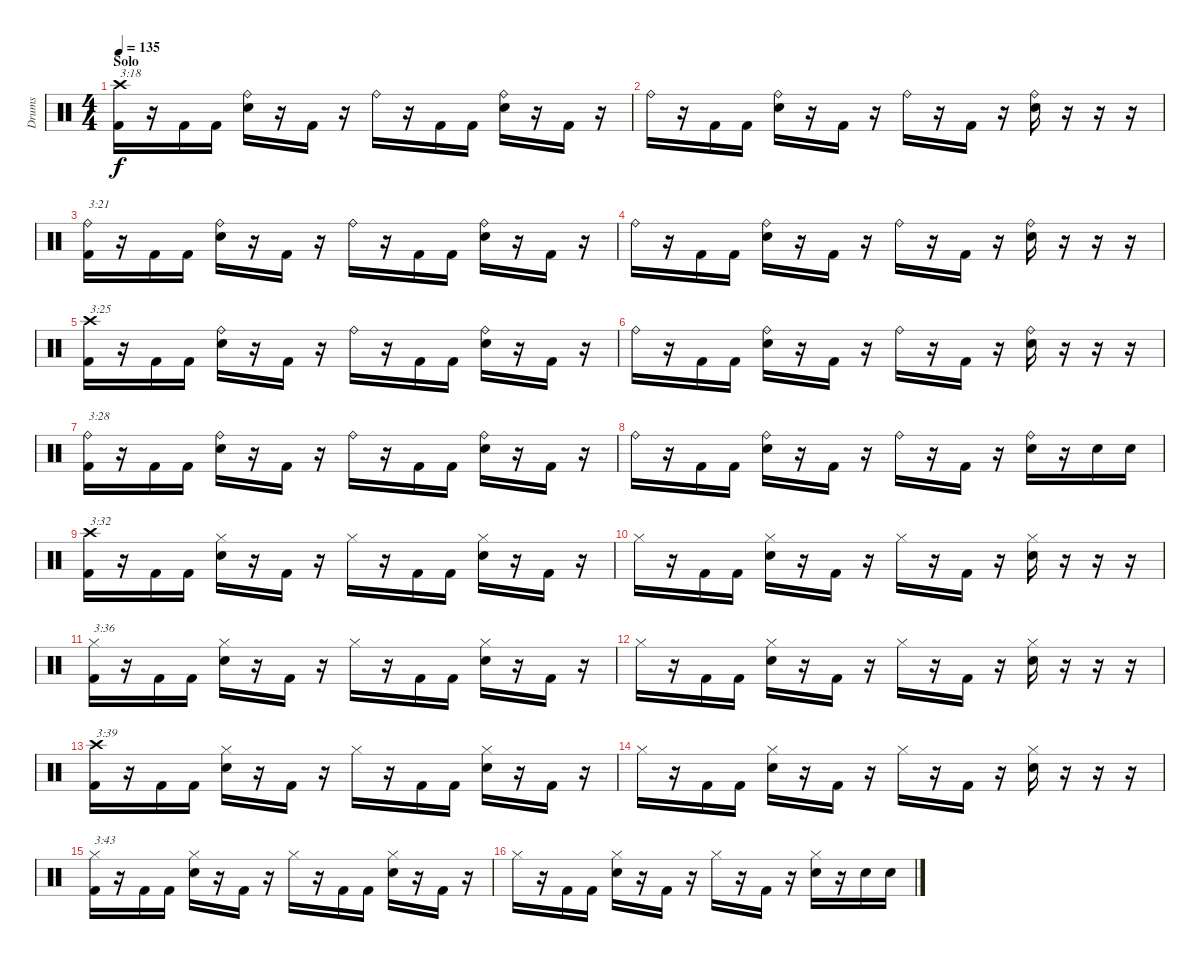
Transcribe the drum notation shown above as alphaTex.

\track ("Drums" "Drums") {instrument percussion}
\staff {score}
\articulation defaults
\ts (4 4)
\section ("" "Solo")
\tempo 135
\clef neutral
\ks c
("Crash high (hit)" "Kick (hit) 2").16{txt "3:18" dy f} r.16 "Kick (hit) 2".16 "Kick (hit) 2".16 ("Ride (bell)" "Electric Snare (hit)").16 r.16 "Kick (hit) 2".16 r.16 "Ride (bell)".16 r.16 "Kick (hit) 2".16 "Kick (hit) 2".16 ("Ride (bell)" "Electric Snare (hit)").16 r.16 "Kick (hit) 2".16 r.16 |
"Ride (bell)".16 r.16 "Kick (hit) 2".16 "Kick (hit) 2".16 ("Ride (bell)" "Electric Snare (hit)").16 r.16 "Kick (hit) 2".16 r.16 "Ride (bell)".16 r.16 "Kick (hit) 2".16 r.16 ("Ride (bell)" "Electric Snare (hit)").16 r.16 r.16 r.16 |
("Ride (bell)" "Kick (hit) 2").16{txt "3:21"} r.16 "Kick (hit) 2".16 "Kick (hit) 2".16 ("Ride (bell)" "Electric Snare (hit)").16 r.16 "Kick (hit) 2".16 r.16 "Ride (bell)".16 r.16 "Kick (hit) 2".16 "Kick (hit) 2".16 ("Ride (bell)" "Electric Snare (hit)").16 r.16 "Kick (hit) 2".16 r.16 |
"Ride (bell)".16 r.16 "Kick (hit) 2".16 "Kick (hit) 2".16 ("Ride (bell)" "Electric Snare (hit)").16 r.16 "Kick (hit) 2".16 r.16 "Ride (bell)".16 r.16 "Kick (hit) 2".16 r.16 ("Ride (bell)" "Electric Snare (hit)").16 r.16 r.16 r.16 |
("Crash high (hit)" "Kick (hit) 2").16{txt "3:25"} r.16 "Kick (hit) 2".16 "Kick (hit) 2".16 ("Ride (bell)" "Electric Snare (hit)").16 r.16 "Kick (hit) 2".16 r.16 "Ride (bell)".16 r.16 "Kick (hit) 2".16 "Kick (hit) 2".16 ("Ride (bell)" "Electric Snare (hit)").16 r.16 "Kick (hit) 2".16 r.16 |
"Ride (bell)".16 r.16 "Kick (hit) 2".16 "Kick (hit) 2".16 ("Ride (bell)" "Electric Snare (hit)").16 r.16 "Kick (hit) 2".16 r.16 "Ride (bell)".16 r.16 "Kick (hit) 2".16 r.16 ("Ride (bell)" "Electric Snare (hit)").16 r.16 r.16 r.16 |
("Ride (bell)" "Kick (hit) 2").16{txt "3:28"} r.16 "Kick (hit) 2".16 "Kick (hit) 2".16 ("Ride (bell)" "Electric Snare (hit)").16 r.16 "Kick (hit) 2".16 r.16 "Ride (bell)".16 r.16 "Kick (hit) 2".16 "Kick (hit) 2".16 ("Ride (bell)" "Electric Snare (hit)").16 r.16 "Kick (hit) 2".16 r.16 |
"Ride (bell)".16 r.16 "Kick (hit) 2".16 "Kick (hit) 2".16 ("Ride (bell)" "Electric Snare (hit)").16 r.16 "Kick (hit) 2".16 r.16 "Ride (bell)".16 r.16 "Kick (hit) 2".16 r.16 ("Ride (bell)" "Electric Snare (hit)").16 r.16 "Electric Snare (hit)".16 "Electric Snare (hit)".16 |
("Crash high (hit)" "Kick (hit) 2").16{txt "3:32"} r.16 "Kick (hit) 2".16 "Kick (hit) 2".16 ("Hi-Hat (closed)" "Electric Snare (hit)").16 r.16 "Kick (hit) 2".16 r.16 "Hi-Hat (closed)".16 r.16 "Kick (hit) 2".16 "Kick (hit) 2".16 ("Hi-Hat (closed)" "Electric Snare (hit)").16 r.16 "Kick (hit) 2".16 r.16 |
"Hi-Hat (closed)".16 r.16 "Kick (hit) 2".16 "Kick (hit) 2".16 ("Hi-Hat (closed)" "Electric Snare (hit)").16 r.16 "Kick (hit) 2".16 r.16 "Hi-Hat (closed)".16 r.16 "Kick (hit) 2".16 r.16 ("Hi-Hat (closed)" "Electric Snare (hit)").16 r.16 r.16 r.16 |
("Hi-Hat (closed)" "Kick (hit) 2").16{txt "3:36"} r.16 "Kick (hit) 2".16 "Kick (hit) 2".16 ("Hi-Hat (closed)" "Electric Snare (hit)").16 r.16 "Kick (hit) 2".16 r.16 "Hi-Hat (closed)".16 r.16 "Kick (hit) 2".16 "Kick (hit) 2".16 ("Hi-Hat (closed)" "Electric Snare (hit)").16 r.16 "Kick (hit) 2".16 r.16 |
"Hi-Hat (closed)".16 r.16 "Kick (hit) 2".16 "Kick (hit) 2".16 ("Hi-Hat (closed)" "Electric Snare (hit)").16 r.16 "Kick (hit) 2".16 r.16 "Hi-Hat (closed)".16 r.16 "Kick (hit) 2".16 r.16 ("Hi-Hat (closed)" "Electric Snare (hit)").16 r.16 r.16 r.16 |
("Crash high (hit)" "Kick (hit) 2").16{txt "3:39"} r.16 "Kick (hit) 2".16 "Kick (hit) 2".16 ("Hi-Hat (closed)" "Electric Snare (hit)").16 r.16 "Kick (hit) 2".16 r.16 "Hi-Hat (closed)".16 r.16 "Kick (hit) 2".16 "Kick (hit) 2".16 ("Hi-Hat (closed)" "Electric Snare (hit)").16 r.16 "Kick (hit) 2".16 r.16 |
"Hi-Hat (closed)".16 r.16 "Kick (hit) 2".16 "Kick (hit) 2".16 ("Hi-Hat (closed)" "Electric Snare (hit)").16 r.16 "Kick (hit) 2".16 r.16 "Hi-Hat (closed)".16 r.16 "Kick (hit) 2".16 r.16 ("Hi-Hat (closed)" "Electric Snare (hit)").16 r.16 r.16 r.16 |
("Hi-Hat (closed)" "Kick (hit) 2").16{txt "3:43"} r.16 "Kick (hit) 2".16 "Kick (hit) 2".16 ("Hi-Hat (closed)" "Electric Snare (hit)").16 r.16 "Kick (hit) 2".16 r.16 "Hi-Hat (closed)".16 r.16 "Kick (hit) 2".16 "Kick (hit) 2".16 ("Hi-Hat (closed)" "Electric Snare (hit)").16 r.16 "Kick (hit) 2".16 r.16 |
"Hi-Hat (closed)".16 r.16 "Kick (hit) 2".16 "Kick (hit) 2".16 ("Hi-Hat (closed)" "Electric Snare (hit)").16 r.16 "Kick (hit) 2".16 r.16 "Hi-Hat (closed)".16 r.16 "Kick (hit) 2".16 r.16 ("Hi-Hat (closed)" "Electric Snare (hit)").16 r.16 "Electric Snare (hit)".16 "Electric Snare (hit)".16
